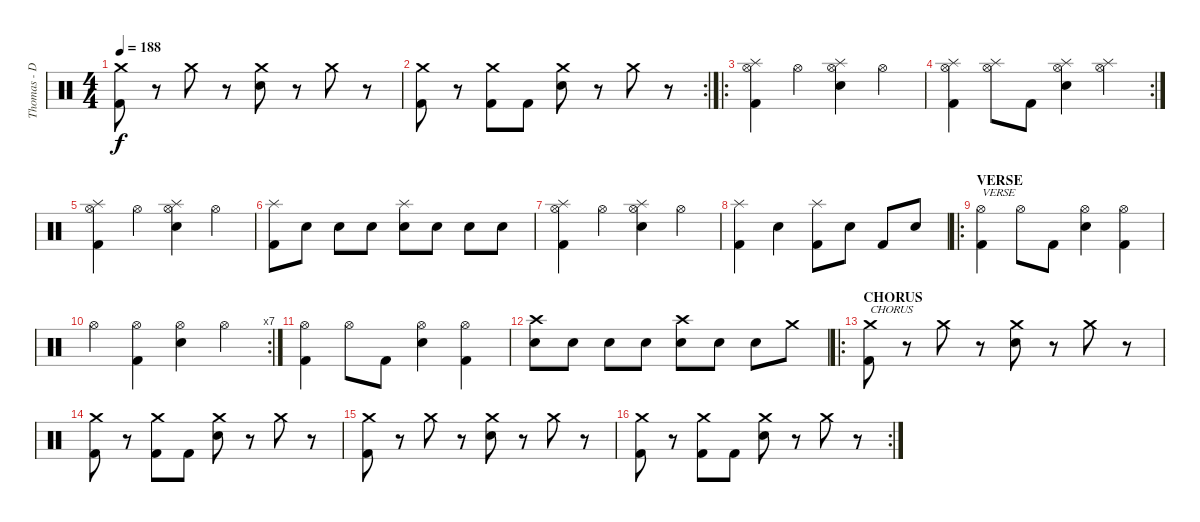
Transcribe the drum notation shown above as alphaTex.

\track ("Thomas - Drums" "Thomas - D") {instrument percussion}
\staff {score}
\articulation defaults
\ts (4 4)
\tempo 188
\clef neutral
\ks c
("Crash medium (hit)" "Kick (hit) 2").8{dy f} r.8 "Crash medium (hit)".8 r.8 ("Crash medium (hit)" "Electric Snare (hit)").8 r.8 "Crash medium (hit)".8 r.8 |
\rc 2
("Crash medium (hit)" "Kick (hit) 2").8 r.8 ("Crash medium (hit)" "Kick (hit) 2").8 "Kick (hit) 2".8 ("Crash medium (hit)" "Electric Snare (hit)").8 r.8 "Crash medium (hit)".8 r.8 |
\ro
("Splash (hit)" "Hi-Hat (open)" "Kick (hit) 2").4 "Hi-Hat (open)".4 ("Splash (hit)" "Hi-Hat (open)" "Electric Snare (hit)").4 "Hi-Hat (open)".4 |
\rc 2
("Splash (hit)" "Hi-Hat (open)" "Kick (hit) 2").4 ("Splash (hit)" "Hi-Hat (open)").8 "Kick (hit) 2".8 ("Splash (hit)" "Hi-Hat (open)" "Electric Snare (hit)").4 ("Splash (hit)" "Hi-Hat (open)").4 |
("Splash (hit)" "Hi-Hat (open)" "Kick (hit) 2").4 "Hi-Hat (open)".4 ("Splash (hit)" "Hi-Hat (open)" "Electric Snare (hit)").4 "Hi-Hat (open)".4 |
("Splash (hit)" "Kick (hit) 2").8 "Electric Snare (hit)".8 "Electric Snare (hit)".8 "Electric Snare (hit)".8 ("Splash (hit)" "Electric Snare (hit)").8 "Electric Snare (hit)".8 "Electric Snare (hit)".8 "Electric Snare (hit)".8 |
("Splash (hit)" "Hi-Hat (open)" "Kick (hit) 2").4 "Hi-Hat (open)".4 ("Splash (hit)" "Hi-Hat (open)" "Electric Snare (hit)").4 "Hi-Hat (open)".4 |
("Splash (hit)" "Kick (hit) 2").4 "Electric Snare (hit)".4 ("Splash (hit)" "Kick (hit) 2").8 "Electric Snare (hit)".8 "Kick (hit) 2".8 "Electric Snare (hit)".8 |
\ro
\section ("" "VERSE")
("Hi-Hat (open)" "Kick (hit) 2").4{txt "VERSE"} "Hi-Hat (open)".8 "Kick (hit) 2".8 ("Hi-Hat (open)" "Electric Snare (hit)").4 ("Hi-Hat (open)" "Kick (hit) 2").4 |
\rc 7 "Hi-Hat (open)".4
("Hi-Hat (open)" "Kick (hit) 2").4 ("Hi-Hat (open)" "Electric Snare (hit)").4 "Hi-Hat (open)".4 |
("Hi-Hat (open)" "Kick (hit) 2").4 "Hi-Hat (open)".8 "Kick (hit) 2".8 ("Hi-Hat (open)" "Electric Snare (hit)").4 ("Hi-Hat (open)" "Kick (hit) 2").4 |
("Crash high (hit)" "Electric Snare (hit)").8 "Electric Snare (hit)".8 "Electric Snare (hit)".8 "Electric Snare (hit)".8 ("Crash high (hit)" "Electric Snare (hit)").8 "Electric Snare (hit)".8 "Electric Snare (hit)".8 "Crash medium (hit)".8 |
\ro
\section ("" "CHORUS")
("Crash medium (hit)" "Kick (hit) 2").8{txt "CHORUS"} r.8 "Crash medium (hit)".8 r.8 ("Crash medium (hit)" "Electric Snare (hit)").8 r.8 "Crash medium (hit)".8 r.8 |
("Crash medium (hit)" "Kick (hit) 2").8 r.8 ("Crash medium (hit)" "Kick (hit) 2").8 "Kick (hit) 2".8 ("Crash medium (hit)" "Electric Snare (hit)").8 r.8 "Crash medium (hit)".8 r.8 |
("Crash medium (hit)" "Kick (hit) 2").8 r.8 "Crash medium (hit)".8 r.8 ("Crash medium (hit)" "Electric Snare (hit)").8 r.8 "Crash medium (hit)".8 r.8 |
\rc 2
("Crash medium (hit)" "Kick (hit) 2").8 r.8 ("Crash medium (hit)" "Kick (hit) 2").8 "Kick (hit) 2".8 ("Crash medium (hit)" "Electric Snare (hit)").8 r.8 "Crash medium (hit)".8 r.8
